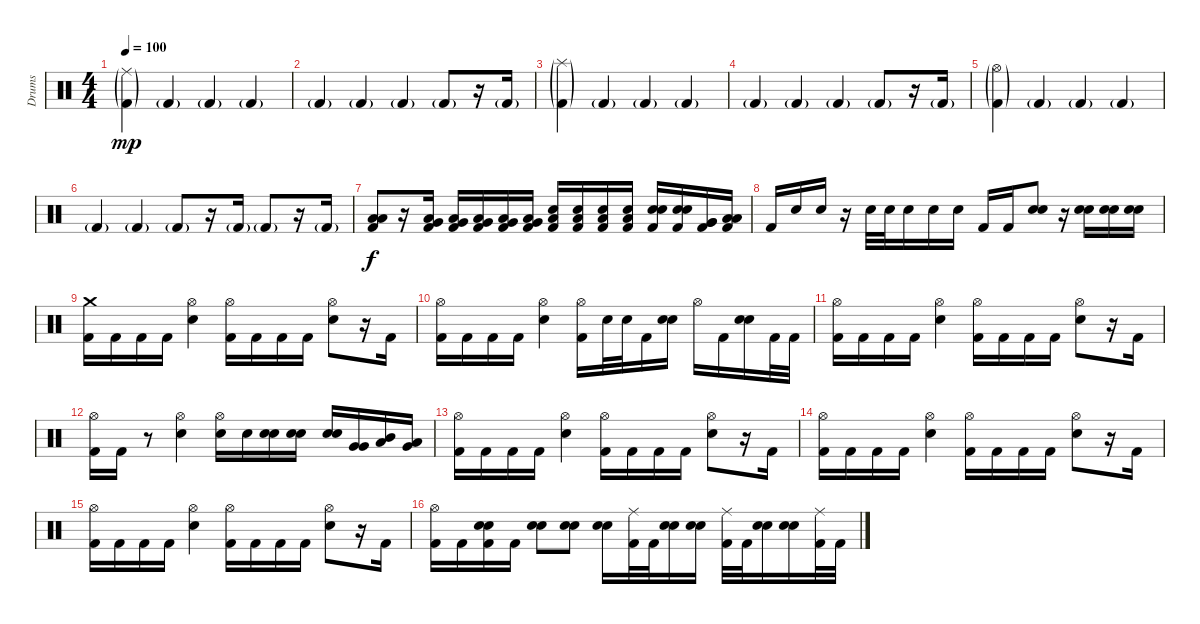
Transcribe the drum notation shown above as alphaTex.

\track ("Drums" "Drums") {instrument percussion}
\staff {score}
\articulation defaults
\ts (4 4)
\tempo 100
\clef neutral
\ks c
("Ride (middle)"{g} "Kick (hit) 2"{g}).4{dy mp} "Kick (hit) 2"{g}.4 "Kick (hit) 2"{g}.4 "Kick (hit) 2"{g}.4 |
"Kick (hit) 2"{g}.4 "Kick (hit) 2"{g}.4 "Kick (hit) 2"{g}.4 "Kick (hit) 2"{g}.8 r.16 "Kick (hit) 2"{g}.16 |
("Splash (hit)"{g} "Kick (hit) 2"{g}).4 "Kick (hit) 2"{g}.4 "Kick (hit) 2"{g}.4 "Kick (hit) 2"{g}.4 |
"Kick (hit) 2"{g}.4 "Kick (hit) 2"{g}.4 "Kick (hit) 2"{g}.4 "Kick (hit) 2"{g}.8 r.16 "Kick (hit) 2"{g}.16 |
("Hi-Hat (open)"{g} "Kick (hit) 2"{g}).4 "Kick (hit) 2"{g}.4 "Kick (hit) 2"{g}.4 "Kick (hit) 2"{g}.4 |
"Kick (hit) 2"{g}.4{volume 4} "Kick (hit) 2"{g}.4 "Kick (hit) 2"{g}.8 r.16 "Kick (hit) 2"{g}.16 "Kick (hit) 2"{g}.8 r.16 "Kick (hit) 2"{g}.16 |
("Low Tom (hit)" "Low Floor Tom (hit)" "Kick (hit) 2").8{dy f volume 16} r.16 ("Very Low Tom (hit)" "Low Floor Tom (hit)" "Kick (hit) 2").16 ("Very Low Tom (hit)" "Low Floor Tom (hit)" "Kick (hit) 2").16 ("Very Low Tom (hit)" "Low Floor Tom (hit)" "Kick (hit) 2").16 ("Very Low Tom (hit)" "Low Floor Tom (hit)" "Kick (hit) 2").16 ("Very Low Tom (hit)" "Low Floor Tom (hit)" "Kick (hit) 2").16 ("Low Floor Tom (hit)" "Electric Snare (hit)" "Kick (hit) 2").16 ("Low Floor Tom (hit)" "Electric Snare (hit)" "Kick (hit) 2").16 ("Low Floor Tom (hit)" "Electric Snare (hit)" "Kick (hit) 2").16 ("Low Floor Tom (hit)" "Electric Snare (hit)" "Kick (hit) 2").16 ("Electric Snare (hit)" "Electric Snare (hit)" "Kick (hit) 2").16 ("Electric Snare (hit)" "Electric Snare (hit)" "Kick (hit) 2").16 ("Very Low Tom (hit)" "Very Low Tom (hit)" "Kick (hit) 2").16 ("Low Floor Tom (hit)" "Low Floor Tom (hit)" "Kick (hit) 2").16 |
"Kick (hit) 2".16 "Electric Snare (hit)".16 "Electric Snare (hit)".16 r.16 "Electric Snare (hit)".32 "Electric Snare (hit)".32 "Electric Snare (hit)".16 "Electric Snare (hit)".16 "Electric Snare (hit)".16 "Kick (hit) 2".16 "Kick (hit) 2".16 ("Electric Snare (hit)" "Electric Snare (hit)").8 r.16 ("Electric Snare (hit)" "Electric Snare (hit)").16 ("Electric Snare (hit)" "Electric Snare (hit)").16 ("Electric Snare (hit)" "Electric Snare (hit)").16 |
("Crash medium (hit)" "Kick (hit) 2").16 "Kick (hit) 2".16 "Kick (hit) 2".16 "Kick (hit) 2".16 ("Hi-Hat (open)" "Electric Snare (hit)").4 ("Hi-Hat (open)" "Kick (hit) 2").16 "Kick (hit) 2".16 "Kick (hit) 2".16 "Kick (hit) 2".16 ("Hi-Hat (open)" "Electric Snare (hit)").8 r.16 "Kick (hit) 2".16 |
("Hi-Hat (open)" "Kick (hit) 2").16 "Kick (hit) 2".16 "Kick (hit) 2".16 "Kick (hit) 2".16 ("Hi-Hat (open)" "Electric Snare (hit)").4 ("Hi-Hat (open)" "Kick (hit) 2").16 "Electric Snare (hit)".32 "Electric Snare (hit)".32 "Kick (hit) 2".16 ("Electric Snare (hit)" "Electric Snare (hit)").16 "Hi-Hat (open)".16 "Kick (hit) 2".16 ("Electric Snare (hit)" "Electric Snare (hit)").16 "Kick (hit) 2".32 "Kick (hit) 2".32 |
("Hi-Hat (open)" "Kick (hit) 2").16 "Kick (hit) 2".16 "Kick (hit) 2".16 "Kick (hit) 2".16 ("Hi-Hat (open)" "Electric Snare (hit)").4 ("Hi-Hat (open)" "Kick (hit) 2").16 "Kick (hit) 2".16 "Kick (hit) 2".16 "Kick (hit) 2".16 ("Hi-Hat (open)" "Electric Snare (hit)").8 r.16 "Kick (hit) 2".16 |
("Hi-Hat (open)" "Kick (hit) 2").16 "Kick (hit) 2".16 r.8 ("Hi-Hat (open)" "Electric Snare (hit)").4 ("Hi-Hat (open)" "Electric Snare (hit)").16 "Electric Snare (hit)".16 ("Electric Snare (hit)" "Electric Snare (hit)").16 ("Electric Snare (hit)" "Electric Snare (hit)").16 ("Electric Snare (hit)" "Electric Snare (hit)").16 ("Very Low Tom (hit)" "Very Low Tom (hit)").16 ("Mid Tom (hit)" "Low Tom (hit)").16 ("Very Low Tom (hit)" "Low Floor Tom (hit)").16 |
("Hi-Hat (open)" "Kick (hit) 2").16 "Kick (hit) 2".16 "Kick (hit) 2".16 "Kick (hit) 2".16 ("Hi-Hat (open)" "Electric Snare (hit)").4 ("Hi-Hat (open)" "Kick (hit) 2").16 "Kick (hit) 2".16 "Kick (hit) 2".16 "Kick (hit) 2".16 ("Hi-Hat (open)" "Electric Snare (hit)").8 r.16 "Kick (hit) 2".16 |
("Hi-Hat (open)" "Kick (hit) 2").16 "Kick (hit) 2".16 "Kick (hit) 2".16 "Kick (hit) 2".16 ("Hi-Hat (open)" "Electric Snare (hit)").4 ("Hi-Hat (open)" "Kick (hit) 2").16 "Kick (hit) 2".16 "Kick (hit) 2".16 "Kick (hit) 2".16 ("Hi-Hat (open)" "Electric Snare (hit)").8 r.16 "Kick (hit) 2".16 |
("Hi-Hat (open)" "Kick (hit) 2").16 "Kick (hit) 2".16 "Kick (hit) 2".16 "Kick (hit) 2".16 ("Hi-Hat (open)" "Electric Snare (hit)").4 ("Hi-Hat (open)" "Kick (hit) 2").16 "Kick (hit) 2".16 "Kick (hit) 2".16 "Kick (hit) 2".16 ("Hi-Hat (open)" "Electric Snare (hit)").8 r.16 "Kick (hit) 2".16 |
("Hi-Hat (open)" "Kick (hit) 2").16 "Kick (hit) 2".16 ("Electric Snare (hit)" "Electric Snare (hit)" "Kick (hit) 2").16 "Kick (hit) 2".16 ("Electric Snare (hit)" "Electric Snare (hit)").8 ("Electric Snare (hit)" "Electric Snare (hit)").8 ("Electric Snare (hit)" "Electric Snare (hit)").16 ("Ride (middle)" "Kick (hit) 2").32 "Kick (hit) 2".32 ("Electric Snare (hit)" "Electric Snare (hit)").16 ("Electric Snare (hit)" "Electric Snare (hit)").16 ("Ride (middle)" "Kick (hit) 2").32 "Kick (hit) 2".32 ("Electric Snare (hit)" "Electric Snare (hit)").16 ("Electric Snare (hit)" "Electric Snare (hit)").16 ("Ride (middle)" "Kick (hit) 2").32 "Kick (hit) 2".32
